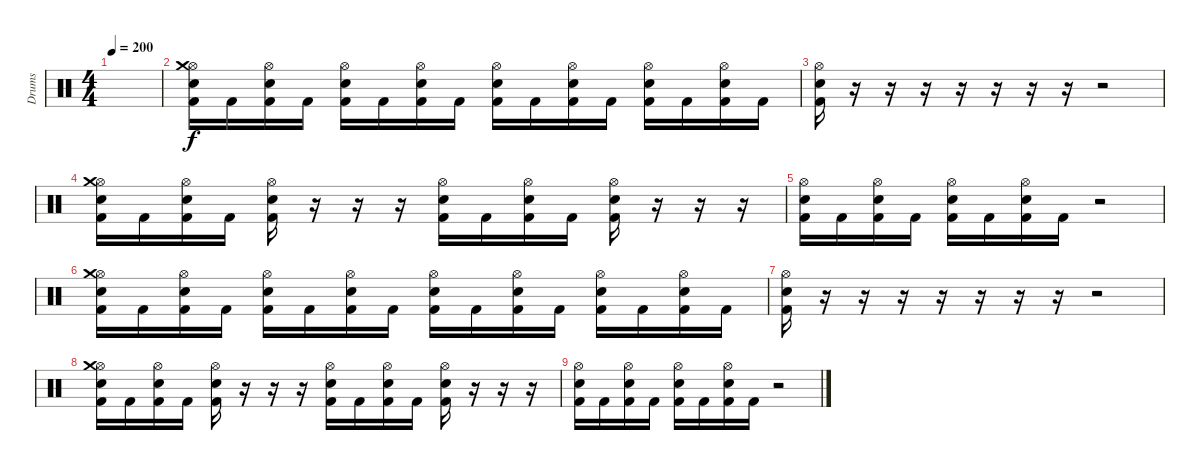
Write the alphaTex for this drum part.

\track ("Drums" "Drums") {instrument percussion}
\staff {score}
\articulation defaults
\ts (4 4)
\tempo 200
\clef neutral
\ks c
|
("Hi-Hat (open)" "Crash medium (hit)" "Electric Snare (hit)" "Kick (hit) 2").16 "Kick (hit) 2".16 ("Hi-Hat (open)" "Electric Snare (hit)" "Kick (hit) 2").16 "Kick (hit) 2".16 ("Hi-Hat (open)" "Electric Snare (hit)" "Kick (hit) 2").16 "Kick (hit) 2".16 ("Hi-Hat (open)" "Electric Snare (hit)" "Kick (hit) 2").16 "Kick (hit) 2".16 ("Hi-Hat (open)" "Electric Snare (hit)" "Kick (hit) 2").16 "Kick (hit) 2".16 ("Hi-Hat (open)" "Electric Snare (hit)" "Kick (hit) 2").16 "Kick (hit) 2".16 ("Hi-Hat (open)" "Electric Snare (hit)" "Kick (hit) 2").16 "Kick (hit) 2".16 ("Hi-Hat (open)" "Electric Snare (hit)" "Kick (hit) 2").16 "Kick (hit) 2".16 |
("Hi-Hat (open)" "Electric Snare (hit)" "Kick (hit) 2").16 r.16 r.16 r.16 r.16 r.16 r.16 r.16 r.2 |
("Hi-Hat (open)" "Crash medium (hit)" "Electric Snare (hit)" "Kick (hit) 2").16 "Kick (hit) 2".16 ("Hi-Hat (open)" "Electric Snare (hit)" "Kick (hit) 2").16 "Kick (hit) 2".16 ("Hi-Hat (open)" "Electric Snare (hit)" "Kick (hit) 2").16 r.16 r.16 r.16 ("Hi-Hat (open)" "Electric Snare (hit)" "Kick (hit) 2").16 "Kick (hit) 2".16 ("Hi-Hat (open)" "Electric Snare (hit)" "Kick (hit) 2").16 "Kick (hit) 2".16 ("Hi-Hat (open)" "Electric Snare (hit)" "Kick (hit) 2").16 r.16 r.16 r.16 |
("Hi-Hat (open)" "Electric Snare (hit)" "Kick (hit) 2").16 "Kick (hit) 2".16 ("Hi-Hat (open)" "Electric Snare (hit)" "Kick (hit) 2").16 "Kick (hit) 2".16 ("Hi-Hat (open)" "Electric Snare (hit)" "Kick (hit) 2").16 "Kick (hit) 2".16 ("Hi-Hat (open)" "Electric Snare (hit)" "Kick (hit) 2").16 "Kick (hit) 2".16 r.2 |
("Hi-Hat (open)" "Crash medium (hit)" "Electric Snare (hit)" "Kick (hit) 2").16 "Kick (hit) 2".16 ("Hi-Hat (open)" "Electric Snare (hit)" "Kick (hit) 2").16 "Kick (hit) 2".16 ("Hi-Hat (open)" "Electric Snare (hit)" "Kick (hit) 2").16 "Kick (hit) 2".16 ("Hi-Hat (open)" "Electric Snare (hit)" "Kick (hit) 2").16 "Kick (hit) 2".16 ("Hi-Hat (open)" "Electric Snare (hit)" "Kick (hit) 2").16 "Kick (hit) 2".16 ("Hi-Hat (open)" "Electric Snare (hit)" "Kick (hit) 2").16 "Kick (hit) 2".16 ("Hi-Hat (open)" "Electric Snare (hit)" "Kick (hit) 2").16 "Kick (hit) 2".16 ("Hi-Hat (open)" "Electric Snare (hit)" "Kick (hit) 2").16 "Kick (hit) 2".16 |
("Hi-Hat (open)" "Electric Snare (hit)" "Kick (hit) 2").16 r.16 r.16 r.16 r.16 r.16 r.16 r.16 r.2 |
("Hi-Hat (open)" "Crash medium (hit)" "Electric Snare (hit)" "Kick (hit) 2").16 "Kick (hit) 2".16 ("Hi-Hat (open)" "Electric Snare (hit)" "Kick (hit) 2").16 "Kick (hit) 2".16 ("Hi-Hat (open)" "Electric Snare (hit)" "Kick (hit) 2").16 r.16 r.16 r.16 ("Hi-Hat (open)" "Electric Snare (hit)" "Kick (hit) 2").16 "Kick (hit) 2".16 ("Hi-Hat (open)" "Electric Snare (hit)" "Kick (hit) 2").16 "Kick (hit) 2".16 ("Hi-Hat (open)" "Electric Snare (hit)" "Kick (hit) 2").16 r.16 r.16 r.16 |
("Hi-Hat (open)" "Electric Snare (hit)" "Kick (hit) 2").16 "Kick (hit) 2".16 ("Hi-Hat (open)" "Electric Snare (hit)" "Kick (hit) 2").16 "Kick (hit) 2".16 ("Hi-Hat (open)" "Electric Snare (hit)" "Kick (hit) 2").16 "Kick (hit) 2".16 ("Hi-Hat (open)" "Electric Snare (hit)" "Kick (hit) 2").16 "Kick (hit) 2".16 r.2
